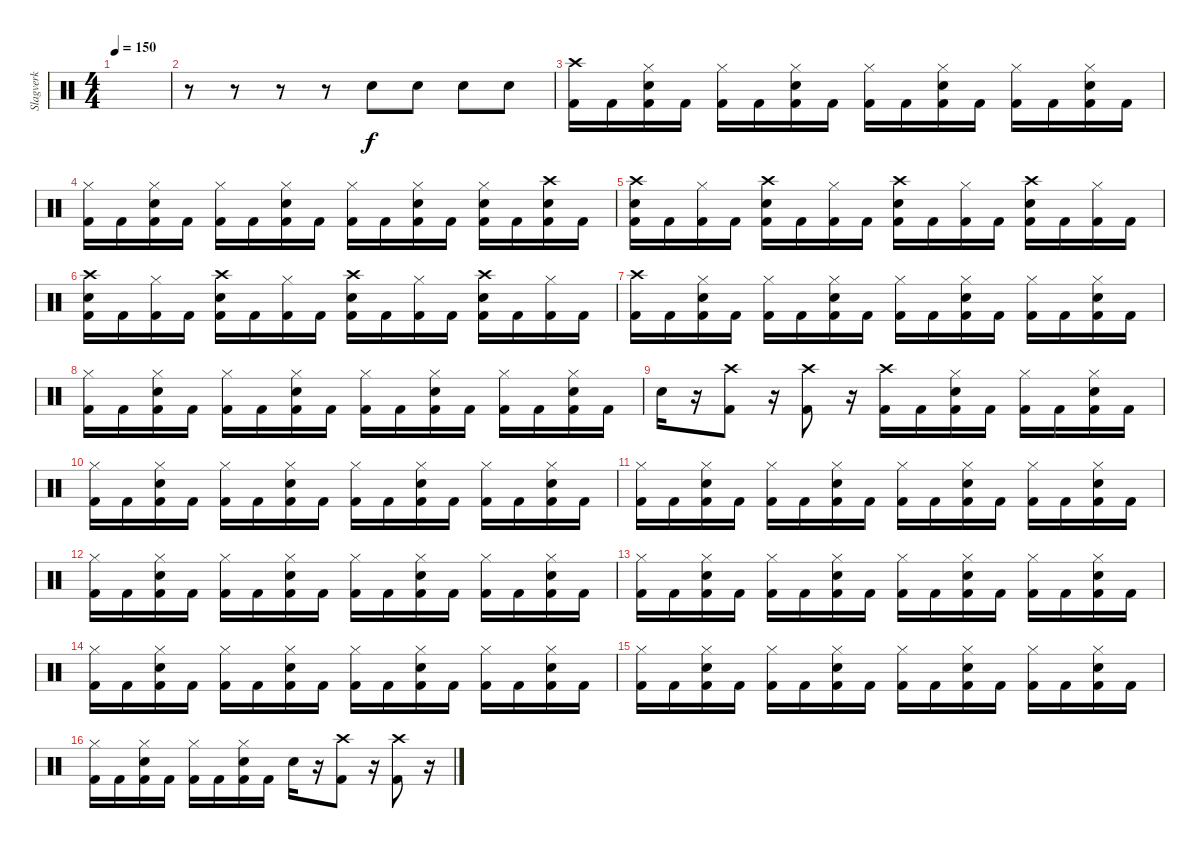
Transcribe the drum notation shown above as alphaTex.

\track ("Slagverk" "Slagverk") {instrument percussion}
\staff {score}
\articulation defaults
\ts (4 4)
\tempo 150
\clef neutral
\ks c
|
r.8 r.8 r.8 r.8 "Electric Snare (hit)".8 "Electric Snare (hit)".8 "Electric Snare (hit)".8 "Electric Snare (hit)".8 |
("Crash high (hit)" "Kick (hit) 2").16 "Kick (hit) 2".16 ("Hi-Hat (closed)" "Electric Snare (hit)" "Kick (hit) 2").16 "Kick (hit) 2".16 ("Hi-Hat (closed)" "Kick (hit) 2").16 "Kick (hit) 2".16 ("Hi-Hat (closed)" "Electric Snare (hit)" "Kick (hit) 2").16 "Kick (hit) 2".16 ("Hi-Hat (closed)" "Kick (hit) 2").16 "Kick (hit) 2".16 ("Hi-Hat (closed)" "Electric Snare (hit)" "Kick (hit) 2").16 "Kick (hit) 2".16 ("Hi-Hat (closed)" "Kick (hit) 2").16 "Kick (hit) 2".16 ("Hi-Hat (closed)" "Electric Snare (hit)" "Kick (hit) 2").16 "Kick (hit) 2".16 |
("Hi-Hat (closed)" "Kick (hit) 2").16 "Kick (hit) 2".16 ("Hi-Hat (closed)" "Electric Snare (hit)" "Kick (hit) 2").16 "Kick (hit) 2".16 ("Hi-Hat (closed)" "Kick (hit) 2").16 "Kick (hit) 2".16 ("Hi-Hat (closed)" "Electric Snare (hit)" "Kick (hit) 2").16 "Kick (hit) 2".16 ("Hi-Hat (closed)" "Kick (hit) 2").16 "Kick (hit) 2".16 ("Hi-Hat (closed)" "Electric Snare (hit)" "Kick (hit) 2").16 "Kick (hit) 2".16 ("Hi-Hat (closed)" "Electric Snare (hit)" "Kick (hit) 2").16 "Kick (hit) 2".16 ("Crash high (hit)" "Electric Snare (hit)" "Kick (hit) 2").16 "Kick (hit) 2".16 |
("Crash high (hit)" "Electric Snare (hit)" "Kick (hit) 2").16 "Kick (hit) 2".16 ("Hi-Hat (closed)" "Kick (hit) 2").16 "Kick (hit) 2".16 ("Crash high (hit)" "Electric Snare (hit)" "Kick (hit) 2").16 "Kick (hit) 2".16 ("Hi-Hat (closed)" "Kick (hit) 2").16 "Kick (hit) 2".16 ("Crash high (hit)" "Electric Snare (hit)" "Kick (hit) 2").16 "Kick (hit) 2".16 ("Hi-Hat (closed)" "Kick (hit) 2").16 "Kick (hit) 2".16 ("Crash high (hit)" "Electric Snare (hit)" "Kick (hit) 2").16 "Kick (hit) 2".16 ("Hi-Hat (closed)" "Kick (hit) 2").16 "Kick (hit) 2".16 |
("Crash high (hit)" "Electric Snare (hit)" "Kick (hit) 2").16 "Kick (hit) 2".16 ("Hi-Hat (closed)" "Kick (hit) 2").16 "Kick (hit) 2".16 ("Crash high (hit)" "Electric Snare (hit)" "Kick (hit) 2").16 "Kick (hit) 2".16 ("Hi-Hat (closed)" "Kick (hit) 2").16 "Kick (hit) 2".16 ("Crash high (hit)" "Electric Snare (hit)" "Kick (hit) 2").16 "Kick (hit) 2".16 ("Hi-Hat (closed)" "Kick (hit) 2").16 "Kick (hit) 2".16 ("Crash high (hit)" "Electric Snare (hit)" "Kick (hit) 2").16 "Kick (hit) 2".16 ("Hi-Hat (closed)" "Kick (hit) 2").16 "Kick (hit) 2".16 |
("Crash high (hit)" "Kick (hit) 2").16 "Kick (hit) 2".16 ("Hi-Hat (closed)" "Electric Snare (hit)" "Kick (hit) 2").16 "Kick (hit) 2".16 ("Hi-Hat (closed)" "Kick (hit) 2").16 "Kick (hit) 2".16 ("Hi-Hat (closed)" "Electric Snare (hit)" "Kick (hit) 2").16 "Kick (hit) 2".16 ("Hi-Hat (closed)" "Kick (hit) 2").16 "Kick (hit) 2".16 ("Hi-Hat (closed)" "Electric Snare (hit)" "Kick (hit) 2").16 "Kick (hit) 2".16 ("Hi-Hat (closed)" "Kick (hit) 2").16 "Kick (hit) 2".16 ("Hi-Hat (closed)" "Electric Snare (hit)" "Kick (hit) 2").16 "Kick (hit) 2".16 |
("Hi-Hat (closed)" "Kick (hit) 2").16 "Kick (hit) 2".16 ("Hi-Hat (closed)" "Electric Snare (hit)" "Kick (hit) 2").16 "Kick (hit) 2".16 ("Hi-Hat (closed)" "Kick (hit) 2").16 "Kick (hit) 2".16 ("Hi-Hat (closed)" "Electric Snare (hit)" "Kick (hit) 2").16 "Kick (hit) 2".16 ("Hi-Hat (closed)" "Kick (hit) 2").16 "Kick (hit) 2".16 ("Hi-Hat (closed)" "Electric Snare (hit)" "Kick (hit) 2").16 "Kick (hit) 2".16 ("Hi-Hat (closed)" "Kick (hit) 2").16 "Kick (hit) 2".16 ("Hi-Hat (closed)" "Electric Snare (hit)" "Kick (hit) 2").16 "Kick (hit) 2".16 |
"Electric Snare (hit)".16 r.16 ("Crash high (hit)" "Kick (hit) 2").8 r.16 ("Crash high (hit)" "Kick (hit) 2").8 r.16 ("Crash high (hit)" "Kick (hit) 2").16 "Kick (hit) 2".16 ("Hi-Hat (closed)" "Electric Snare (hit)" "Kick (hit) 2").16 "Kick (hit) 2".16 ("Hi-Hat (closed)" "Kick (hit) 2").16 "Kick (hit) 2".16 ("Hi-Hat (closed)" "Electric Snare (hit)" "Kick (hit) 2").16 "Kick (hit) 2".16 |
("Hi-Hat (closed)" "Kick (hit) 2").16 "Kick (hit) 2".16 ("Hi-Hat (closed)" "Electric Snare (hit)" "Kick (hit) 2").16 "Kick (hit) 2".16 ("Hi-Hat (closed)" "Kick (hit) 2").16 "Kick (hit) 2".16 ("Hi-Hat (closed)" "Electric Snare (hit)" "Kick (hit) 2").16 "Kick (hit) 2".16 ("Hi-Hat (closed)" "Kick (hit) 2").16 "Kick (hit) 2".16 ("Hi-Hat (closed)" "Electric Snare (hit)" "Kick (hit) 2").16 "Kick (hit) 2".16 ("Hi-Hat (closed)" "Kick (hit) 2").16 "Kick (hit) 2".16 ("Hi-Hat (closed)" "Electric Snare (hit)" "Kick (hit) 2").16 "Kick (hit) 2".16 |
("Hi-Hat (closed)" "Kick (hit) 2").16 "Kick (hit) 2".16 ("Hi-Hat (closed)" "Electric Snare (hit)" "Kick (hit) 2").16 "Kick (hit) 2".16 ("Hi-Hat (closed)" "Kick (hit) 2").16 "Kick (hit) 2".16 ("Hi-Hat (closed)" "Electric Snare (hit)" "Kick (hit) 2").16 "Kick (hit) 2".16 ("Hi-Hat (closed)" "Kick (hit) 2").16 "Kick (hit) 2".16 ("Hi-Hat (closed)" "Electric Snare (hit)" "Kick (hit) 2").16 "Kick (hit) 2".16 ("Hi-Hat (closed)" "Kick (hit) 2").16 "Kick (hit) 2".16 ("Hi-Hat (closed)" "Electric Snare (hit)" "Kick (hit) 2").16 "Kick (hit) 2".16 |
("Hi-Hat (closed)" "Kick (hit) 2").16 "Kick (hit) 2".16 ("Hi-Hat (closed)" "Electric Snare (hit)" "Kick (hit) 2").16 "Kick (hit) 2".16 ("Hi-Hat (closed)" "Kick (hit) 2").16 "Kick (hit) 2".16 ("Hi-Hat (closed)" "Electric Snare (hit)" "Kick (hit) 2").16 "Kick (hit) 2".16 ("Hi-Hat (closed)" "Kick (hit) 2").16 "Kick (hit) 2".16 ("Hi-Hat (closed)" "Electric Snare (hit)" "Kick (hit) 2").16 "Kick (hit) 2".16 ("Hi-Hat (closed)" "Kick (hit) 2").16 "Kick (hit) 2".16 ("Hi-Hat (closed)" "Electric Snare (hit)" "Kick (hit) 2").16 "Kick (hit) 2".16 |
("Hi-Hat (closed)" "Kick (hit) 2").16 "Kick (hit) 2".16 ("Hi-Hat (closed)" "Electric Snare (hit)" "Kick (hit) 2").16 "Kick (hit) 2".16 ("Hi-Hat (closed)" "Kick (hit) 2").16 "Kick (hit) 2".16 ("Hi-Hat (closed)" "Electric Snare (hit)" "Kick (hit) 2").16 "Kick (hit) 2".16 ("Hi-Hat (closed)" "Kick (hit) 2").16 "Kick (hit) 2".16 ("Hi-Hat (closed)" "Electric Snare (hit)" "Kick (hit) 2").16 "Kick (hit) 2".16 ("Hi-Hat (closed)" "Kick (hit) 2").16 "Kick (hit) 2".16 ("Hi-Hat (closed)" "Electric Snare (hit)" "Kick (hit) 2").16 "Kick (hit) 2".16 |
("Hi-Hat (closed)" "Kick (hit) 2").16 "Kick (hit) 2".16 ("Hi-Hat (closed)" "Electric Snare (hit)" "Kick (hit) 2").16 "Kick (hit) 2".16 ("Hi-Hat (closed)" "Kick (hit) 2").16 "Kick (hit) 2".16 ("Hi-Hat (closed)" "Electric Snare (hit)" "Kick (hit) 2").16 "Kick (hit) 2".16 ("Hi-Hat (closed)" "Kick (hit) 2").16 "Kick (hit) 2".16 ("Hi-Hat (closed)" "Electric Snare (hit)" "Kick (hit) 2").16 "Kick (hit) 2".16 ("Hi-Hat (closed)" "Kick (hit) 2").16 "Kick (hit) 2".16 ("Hi-Hat (closed)" "Electric Snare (hit)" "Kick (hit) 2").16 "Kick (hit) 2".16 |
("Hi-Hat (closed)" "Kick (hit) 2").16 "Kick (hit) 2".16 ("Hi-Hat (closed)" "Electric Snare (hit)" "Kick (hit) 2").16 "Kick (hit) 2".16 ("Hi-Hat (closed)" "Kick (hit) 2").16 "Kick (hit) 2".16 ("Hi-Hat (closed)" "Electric Snare (hit)" "Kick (hit) 2").16 "Kick (hit) 2".16 ("Hi-Hat (closed)" "Kick (hit) 2").16 "Kick (hit) 2".16 ("Hi-Hat (closed)" "Electric Snare (hit)" "Kick (hit) 2").16 "Kick (hit) 2".16 ("Hi-Hat (closed)" "Kick (hit) 2").16 "Kick (hit) 2".16 ("Hi-Hat (closed)" "Electric Snare (hit)" "Kick (hit) 2").16 "Kick (hit) 2".16 |
("Hi-Hat (closed)" "Kick (hit) 2").16 "Kick (hit) 2".16 ("Hi-Hat (closed)" "Electric Snare (hit)" "Kick (hit) 2").16 "Kick (hit) 2".16 ("Hi-Hat (closed)" "Kick (hit) 2").16 "Kick (hit) 2".16 ("Hi-Hat (closed)" "Electric Snare (hit)" "Kick (hit) 2").16 "Kick (hit) 2".16 "Electric Snare (hit)".16 r.16 ("Crash high (hit)" "Kick (hit) 2").8 r.16 ("Crash high (hit)" "Kick (hit) 2").8 r.16
